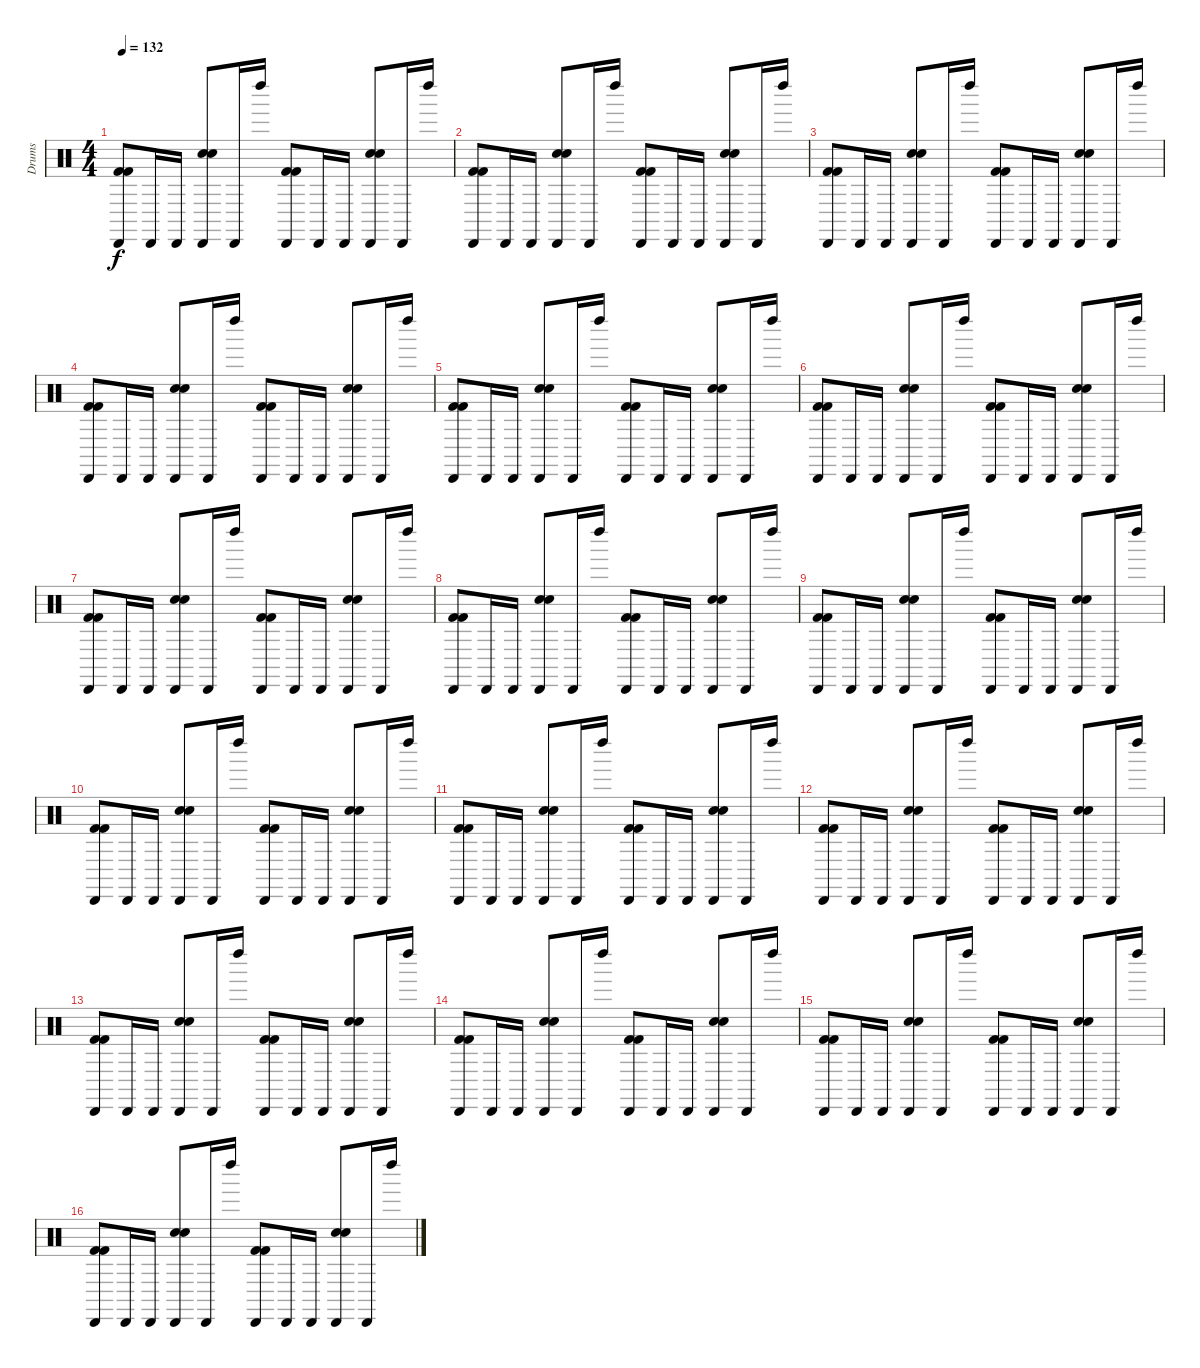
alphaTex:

\track ("Drums" "Drums") {instrument percussion}
\staff {score}
\articulation defaults
\ts (4 4)
\tempo 132
\clef neutral
\ks c
("Kick (hit) 2" "Kick (hit) 2" "Cabasa (hit)").8{dy f} "Cabasa (hit)".16 "Cabasa (hit)".16 ("Electric Snare (hit)" "Electric Snare (hit)" "Cabasa (hit)").8 "Cabasa (hit)".16 "Left Maraca (hit)".16 ("Kick (hit) 2" "Kick (hit) 2" "Cabasa (hit)").8 "Cabasa (hit)".16 "Cabasa (hit)".16 ("Electric Snare (hit)" "Electric Snare (hit)" "Cabasa (hit)").8 "Cabasa (hit)".16 "Left Maraca (hit)".16 |
("Kick (hit) 2" "Kick (hit) 2" "Cabasa (hit)").8 "Cabasa (hit)".16 "Cabasa (hit)".16 ("Electric Snare (hit)" "Electric Snare (hit)" "Cabasa (hit)").8 "Cabasa (hit)".16 "Left Maraca (hit)".16 ("Kick (hit) 2" "Kick (hit) 2" "Cabasa (hit)").8 "Cabasa (hit)".16 "Cabasa (hit)".16 ("Electric Snare (hit)" "Electric Snare (hit)" "Cabasa (hit)").8 "Cabasa (hit)".16 "Left Maraca (hit)".16 |
("Kick (hit) 2" "Kick (hit) 2" "Cabasa (hit)").8 "Cabasa (hit)".16 "Cabasa (hit)".16 ("Electric Snare (hit)" "Electric Snare (hit)" "Cabasa (hit)").8 "Cabasa (hit)".16 "Left Maraca (hit)".16 ("Kick (hit) 2" "Kick (hit) 2" "Cabasa (hit)").8 "Cabasa (hit)".16 "Cabasa (hit)".16 ("Electric Snare (hit)" "Electric Snare (hit)" "Cabasa (hit)").8 "Cabasa (hit)".16 "Left Maraca (hit)".16 |
("Kick (hit) 2" "Kick (hit) 2" "Cabasa (hit)").8 "Cabasa (hit)".16 "Cabasa (hit)".16 ("Electric Snare (hit)" "Electric Snare (hit)" "Cabasa (hit)").8 "Cabasa (hit)".16 "Left Maraca (hit)".16 ("Kick (hit) 2" "Kick (hit) 2" "Cabasa (hit)").8 "Cabasa (hit)".16 "Cabasa (hit)".16 ("Electric Snare (hit)" "Electric Snare (hit)" "Cabasa (hit)").8 "Cabasa (hit)".16 "Left Maraca (hit)".16 |
("Kick (hit) 2" "Kick (hit) 2" "Cabasa (hit)").8 "Cabasa (hit)".16 "Cabasa (hit)".16 ("Electric Snare (hit)" "Electric Snare (hit)" "Cabasa (hit)").8 "Cabasa (hit)".16 "Left Maraca (hit)".16 ("Kick (hit) 2" "Kick (hit) 2" "Cabasa (hit)").8 "Cabasa (hit)".16 "Cabasa (hit)".16 ("Electric Snare (hit)" "Electric Snare (hit)" "Cabasa (hit)").8 "Cabasa (hit)".16 "Left Maraca (hit)".16 |
("Kick (hit) 2" "Kick (hit) 2" "Cabasa (hit)").8 "Cabasa (hit)".16 "Cabasa (hit)".16 ("Electric Snare (hit)" "Electric Snare (hit)" "Cabasa (hit)").8 "Cabasa (hit)".16 "Left Maraca (hit)".16 ("Kick (hit) 2" "Kick (hit) 2" "Cabasa (hit)").8 "Cabasa (hit)".16 "Cabasa (hit)".16 ("Electric Snare (hit)" "Electric Snare (hit)" "Cabasa (hit)").8 "Cabasa (hit)".16 "Left Maraca (hit)".16 |
("Kick (hit) 2" "Kick (hit) 2" "Cabasa (hit)").8 "Cabasa (hit)".16 "Cabasa (hit)".16 ("Electric Snare (hit)" "Electric Snare (hit)" "Cabasa (hit)").8 "Cabasa (hit)".16 "Left Maraca (hit)".16 ("Kick (hit) 2" "Kick (hit) 2" "Cabasa (hit)").8 "Cabasa (hit)".16 "Cabasa (hit)".16 ("Electric Snare (hit)" "Electric Snare (hit)" "Cabasa (hit)").8 "Cabasa (hit)".16 "Left Maraca (hit)".16 |
("Kick (hit) 2" "Kick (hit) 2" "Cabasa (hit)").8 "Cabasa (hit)".16 "Cabasa (hit)".16 ("Electric Snare (hit)" "Electric Snare (hit)" "Cabasa (hit)").8 "Cabasa (hit)".16 "Left Maraca (hit)".16 ("Kick (hit) 2" "Kick (hit) 2" "Cabasa (hit)").8 "Cabasa (hit)".16 "Cabasa (hit)".16 ("Electric Snare (hit)" "Electric Snare (hit)" "Cabasa (hit)").8 "Cabasa (hit)".16 "Left Maraca (hit)".16 |
("Kick (hit) 2" "Kick (hit) 2" "Cabasa (hit)").8 "Cabasa (hit)".16 "Cabasa (hit)".16 ("Electric Snare (hit)" "Electric Snare (hit)" "Cabasa (hit)").8 "Cabasa (hit)".16 "Left Maraca (hit)".16 ("Kick (hit) 2" "Kick (hit) 2" "Cabasa (hit)").8 "Cabasa (hit)".16 "Cabasa (hit)".16 ("Electric Snare (hit)" "Electric Snare (hit)" "Cabasa (hit)").8 "Cabasa (hit)".16 "Left Maraca (hit)".16 |
("Kick (hit) 2" "Kick (hit) 2" "Cabasa (hit)").8 "Cabasa (hit)".16 "Cabasa (hit)".16 ("Electric Snare (hit)" "Electric Snare (hit)" "Cabasa (hit)").8 "Cabasa (hit)".16 "Left Maraca (hit)".16 ("Kick (hit) 2" "Kick (hit) 2" "Cabasa (hit)").8 "Cabasa (hit)".16 "Cabasa (hit)".16 ("Electric Snare (hit)" "Electric Snare (hit)" "Cabasa (hit)").8 "Cabasa (hit)".16 "Left Maraca (hit)".16 |
("Kick (hit) 2" "Kick (hit) 2" "Cabasa (hit)").8 "Cabasa (hit)".16 "Cabasa (hit)".16 ("Electric Snare (hit)" "Electric Snare (hit)" "Cabasa (hit)").8 "Cabasa (hit)".16 "Left Maraca (hit)".16 ("Kick (hit) 2" "Kick (hit) 2" "Cabasa (hit)").8 "Cabasa (hit)".16 "Cabasa (hit)".16 ("Electric Snare (hit)" "Electric Snare (hit)" "Cabasa (hit)").8 "Cabasa (hit)".16 "Left Maraca (hit)".16 |
("Kick (hit) 2" "Kick (hit) 2" "Cabasa (hit)").8 "Cabasa (hit)".16 "Cabasa (hit)".16 ("Electric Snare (hit)" "Electric Snare (hit)" "Cabasa (hit)").8 "Cabasa (hit)".16 "Left Maraca (hit)".16 ("Kick (hit) 2" "Kick (hit) 2" "Cabasa (hit)").8 "Cabasa (hit)".16 "Cabasa (hit)".16 ("Electric Snare (hit)" "Electric Snare (hit)" "Cabasa (hit)").8 "Cabasa (hit)".16 "Left Maraca (hit)".16 |
("Kick (hit) 2" "Kick (hit) 2" "Cabasa (hit)").8 "Cabasa (hit)".16 "Cabasa (hit)".16 ("Electric Snare (hit)" "Electric Snare (hit)" "Cabasa (hit)").8 "Cabasa (hit)".16 "Left Maraca (hit)".16 ("Kick (hit) 2" "Kick (hit) 2" "Cabasa (hit)").8 "Cabasa (hit)".16 "Cabasa (hit)".16 ("Electric Snare (hit)" "Electric Snare (hit)" "Cabasa (hit)").8 "Cabasa (hit)".16 "Left Maraca (hit)".16 |
("Kick (hit) 2" "Kick (hit) 2" "Cabasa (hit)").8 "Cabasa (hit)".16 "Cabasa (hit)".16 ("Electric Snare (hit)" "Electric Snare (hit)" "Cabasa (hit)").8 "Cabasa (hit)".16 "Left Maraca (hit)".16 ("Kick (hit) 2" "Kick (hit) 2" "Cabasa (hit)").8 "Cabasa (hit)".16 "Cabasa (hit)".16 ("Electric Snare (hit)" "Electric Snare (hit)" "Cabasa (hit)").8 "Cabasa (hit)".16 "Left Maraca (hit)".16 |
("Kick (hit) 2" "Kick (hit) 2" "Cabasa (hit)").8 "Cabasa (hit)".16 "Cabasa (hit)".16 ("Electric Snare (hit)" "Electric Snare (hit)" "Cabasa (hit)").8 "Cabasa (hit)".16 "Left Maraca (hit)".16 ("Kick (hit) 2" "Kick (hit) 2" "Cabasa (hit)").8 "Cabasa (hit)".16 "Cabasa (hit)".16 ("Electric Snare (hit)" "Electric Snare (hit)" "Cabasa (hit)").8 "Cabasa (hit)".16 "Left Maraca (hit)".16 |
("Kick (hit) 2" "Kick (hit) 2" "Cabasa (hit)").8 "Cabasa (hit)".16 "Cabasa (hit)".16 ("Electric Snare (hit)" "Electric Snare (hit)" "Cabasa (hit)").8 "Cabasa (hit)".16 "Left Maraca (hit)".16 ("Kick (hit) 2" "Kick (hit) 2" "Cabasa (hit)").8 "Cabasa (hit)".16 "Cabasa (hit)".16 ("Electric Snare (hit)" "Electric Snare (hit)" "Cabasa (hit)").8 "Cabasa (hit)".16 "Left Maraca (hit)".16
